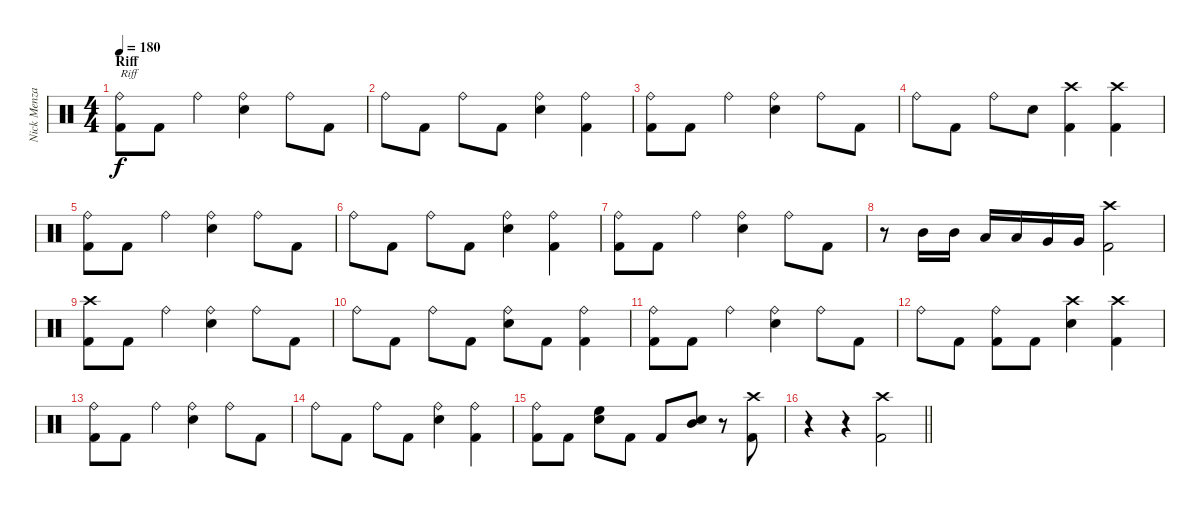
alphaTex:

\track ("Nick Menza" "Nick Menza") {instrument percussion}
\staff {score}
\articulation defaults
\ts (4 4)
\section ("" "Riff")
\tempo 180
\clef neutral
\ks c
("Ride (bell)" "Kick (hit) 2").8{txt "Riff" dy f} "Kick (hit) 2".8 "Ride (bell)".4 ("Ride (bell)" "Snare (hit) 2").4 "Ride (bell)".8 "Kick (hit) 2".8 |
"Ride (bell)".8 "Kick (hit) 2".8 "Ride (bell)".8 "Kick (hit) 2".8 ("Ride (bell)" "Snare (hit) 2").4 ("Ride (bell)" "Kick (hit) 2").4 |
("Ride (bell)" "Kick (hit) 2").8 "Kick (hit) 2".8 "Ride (bell)".4 ("Ride (bell)" "Snare (hit) 2").4 "Ride (bell)".8 "Kick (hit) 2".8 |
"Ride (bell)".8 "Kick (hit) 2".8 "Ride (bell)".8 "Snare (hit) 2".8 ("Crash high (hit)" "Kick (hit) 2").4 ("Crash high (hit)" "Kick (hit) 2").4 |
("Ride (bell)" "Kick (hit) 2").8 "Kick (hit) 2".8 "Ride (bell)".4 ("Ride (bell)" "Snare (hit) 2").4 "Ride (bell)".8 "Kick (hit) 2".8 |
"Ride (bell)".8 "Kick (hit) 2".8 "Ride (bell)".8 "Kick (hit) 2".8 ("Ride (bell)" "Snare (hit) 2").4 ("Ride (bell)" "Kick (hit) 2").4 |
("Ride (bell)" "Kick (hit) 2").8 "Kick (hit) 2".8 "Ride (bell)".4 ("Ride (bell)" "Snare (hit) 2").4 "Ride (bell)".8 "Kick (hit) 2".8 |
r.8 "Mid Tom (hit)".16 "Mid Tom (hit)".16 "Low Tom (hit)".16 "Low Tom (hit)".16 "Very Low Tom (hit)".16 "Very Low Tom (hit)".16 ("Crash high (hit)" "Kick (hit) 2").2 |
("Crash high (hit)" "Kick (hit) 2").8 "Kick (hit) 2".8 "Ride (bell)".4 ("Ride (bell)" "Snare (hit) 2").4 "Ride (bell)".8 "Kick (hit) 2".8 |
"Ride (bell)".8 "Kick (hit) 2".8 "Ride (bell)".8 "Kick (hit) 2".8 ("Ride (bell)" "Snare (hit) 2").8 "Kick (hit) 2".8 ("Ride (bell)" "Kick (hit) 2").4 |
("Ride (bell)" "Kick (hit) 2").8 "Kick (hit) 2".8 "Ride (bell)".4 ("Ride (bell)" "Snare (hit) 2").4 "Ride (bell)".8 "Kick (hit) 2".8 |
"Ride (bell)".8 "Kick (hit) 2".8 ("Ride (bell)" "Kick (hit) 2").8 "Kick (hit) 2".8 ("Crash high (hit)" "Snare (hit) 2").4 ("Crash high (hit)" "Kick (hit) 2").4 |
("Ride (bell)" "Kick (hit) 2").8 "Kick (hit) 2".8 "Ride (bell)".4 ("Ride (bell)" "Snare (hit) 2").4 "Ride (bell)".8 "Kick (hit) 2".8 |
"Ride (bell)".8 "Kick (hit) 2".8 "Ride (bell)".8 "Kick (hit) 2".8 ("Ride (bell)" "Snare (hit) 2").4 ("Ride (bell)" "Kick (hit) 2").4 |
("Ride (bell)" "Kick (hit) 2").8 "Kick (hit) 2".8 ("High Floor Tom (hit)" "Snare (hit) 2").8 "Kick (hit) 2".8 "Kick (hit) 2".8 ("Mid Tom (hit)" "Snare (hit) 2").8 r.8 ("Crash high (hit)" "Kick (hit) 2").8 |
\barLineRight lightlight
r.4 r.4 ("Crash high (hit)" "Kick (hit) 2").2
